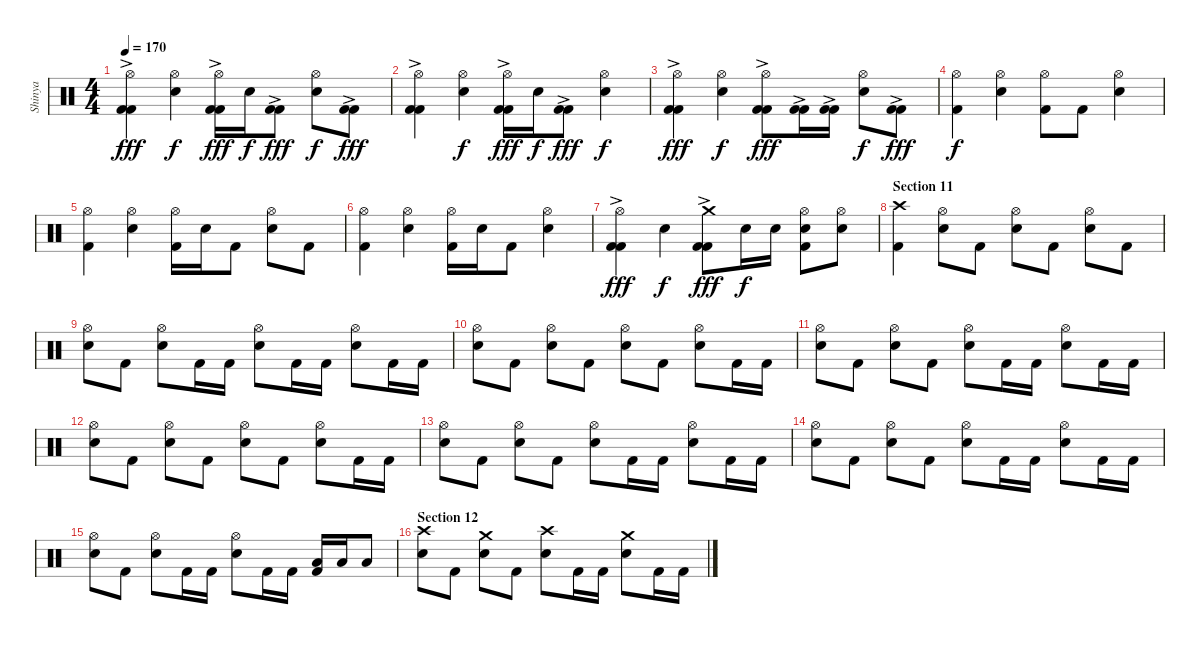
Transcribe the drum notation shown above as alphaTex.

\track ("Shinya" "Shinya") {instrument percussion}
\staff {score}
\articulation defaults
\ts (4 4)
\tempo 170
\clef neutral
\ks c
("Hi-Hat (open)" "Kick (hit) 2"{ac} "Kick (hit) 2").4{dy fff} ("Hi-Hat (open)" "Snare (hit) 2").4{dy f} ("Hi-Hat (open)" "Kick (hit) 2"{ac} "Kick (hit) 2").16{dy fff} "Snare (hit) 2".16{dy f} ("Kick (hit) 2"{ac} "Kick (hit) 2").8{dy fff} ("Hi-Hat (open)" "Snare (hit) 2").8{dy f} ("Kick (hit) 2"{ac} "Kick (hit) 2").8{dy fff} |
("Hi-Hat (open)" "Kick (hit) 2"{ac} "Kick (hit) 2").4 ("Hi-Hat (open)" "Snare (hit) 2").4{dy f} ("Hi-Hat (open)" "Kick (hit) 2"{ac} "Kick (hit) 2").16{dy fff} "Snare (hit) 2".16{dy f} ("Kick (hit) 2"{ac} "Kick (hit) 2").8{dy fff} ("Hi-Hat (open)" "Snare (hit) 2").4{dy f} |
("Hi-Hat (open)" "Kick (hit) 2"{ac} "Kick (hit) 2").4{dy fff} ("Hi-Hat (open)" "Snare (hit) 2").4{dy f} ("Hi-Hat (open)" "Kick (hit) 2"{ac} "Kick (hit) 2").8{dy fff} ("Kick (hit) 2"{ac} "Kick (hit) 2").16 ("Kick (hit) 2"{ac} "Kick (hit) 2").16 ("Hi-Hat (open)" "Snare (hit) 2").8{dy f} ("Kick (hit) 2"{ac} "Kick (hit) 2").8{dy fff} |
("Hi-Hat (open)" "Kick (hit) 2").4{dy f} ("Hi-Hat (open)" "Snare (hit) 2").4 ("Hi-Hat (open)" "Kick (hit) 2").8 "Kick (hit) 2".8 ("Hi-Hat (open)" "Snare (hit) 2").4 |
("Hi-Hat (open)" "Kick (hit) 2").4 ("Hi-Hat (open)" "Snare (hit) 2").4 ("Hi-Hat (open)" "Kick (hit) 2").16 "Snare (hit) 2".16 "Kick (hit) 2".8 ("Hi-Hat (open)" "Snare (hit) 2").8 "Kick (hit) 2".8 |
("Hi-Hat (open)" "Kick (hit) 2").4 ("Hi-Hat (open)" "Snare (hit) 2").4 ("Hi-Hat (open)" "Kick (hit) 2").16 "Snare (hit) 2".16 "Kick (hit) 2".8 ("Hi-Hat (open)" "Snare (hit) 2").4 |
("Hi-Hat (open)" "Kick (hit) 2"{ac} "Kick (hit) 2").4{dy fff} "Snare (hit) 2".4{dy f} ("Crash medium (hit)" "Kick (hit) 2"{ac} "Kick (hit) 2").8{dy fff} "Snare (hit) 2".16{dy f} "Snare (hit) 2".16 ("Hi-Hat (open)" "Snare (hit) 2" "Kick (hit) 2").8 ("Hi-Hat (open)" "Snare (hit) 2").8 |
\section ("" "Section 11")
("Crash high (hit)" "Kick (hit) 2").4 ("Hi-Hat (open)" "Snare (hit) 2").8 "Kick (hit) 2".8 ("Hi-Hat (open)" "Snare (hit) 2").8 "Kick (hit) 2".8 ("Hi-Hat (open)" "Snare (hit) 2").8 "Kick (hit) 2".8 |
("Hi-Hat (open)" "Snare (hit) 2").8 "Kick (hit) 2".8 ("Hi-Hat (open)" "Snare (hit) 2").8 "Kick (hit) 2".16 "Kick (hit) 2".16 ("Hi-Hat (open)" "Snare (hit) 2").8 "Kick (hit) 2".16 "Kick (hit) 2".16 ("Hi-Hat (open)" "Snare (hit) 2").8 "Kick (hit) 2".16 "Kick (hit) 2".16 |
("Hi-Hat (open)" "Snare (hit) 2").8 "Kick (hit) 2".8 ("Hi-Hat (open)" "Snare (hit) 2").8 "Kick (hit) 2".8 ("Hi-Hat (open)" "Snare (hit) 2").8 "Kick (hit) 2".8 ("Hi-Hat (open)" "Snare (hit) 2").8 "Kick (hit) 2".16 "Kick (hit) 2".16 |
("Hi-Hat (open)" "Snare (hit) 2").8 "Kick (hit) 2".8 ("Hi-Hat (open)" "Snare (hit) 2").8 "Kick (hit) 2".8 ("Hi-Hat (open)" "Snare (hit) 2").8 "Kick (hit) 2".16 "Kick (hit) 2".16 ("Hi-Hat (open)" "Snare (hit) 2").8 "Kick (hit) 2".16 "Kick (hit) 2".16 |
("Hi-Hat (open)" "Snare (hit) 2").8 "Kick (hit) 2".8 ("Hi-Hat (open)" "Snare (hit) 2").8 "Kick (hit) 2".8 ("Hi-Hat (open)" "Snare (hit) 2").8 "Kick (hit) 2".8 ("Hi-Hat (open)" "Snare (hit) 2").8 "Kick (hit) 2".16 "Kick (hit) 2".16 |
("Hi-Hat (open)" "Snare (hit) 2").8 "Kick (hit) 2".8 ("Hi-Hat (open)" "Snare (hit) 2").8 "Kick (hit) 2".8 ("Hi-Hat (open)" "Snare (hit) 2").8 "Kick (hit) 2".16 "Kick (hit) 2".16 ("Hi-Hat (open)" "Snare (hit) 2").8 "Kick (hit) 2".16 "Kick (hit) 2".16 |
("Hi-Hat (open)" "Snare (hit) 2").8 "Kick (hit) 2".8 ("Hi-Hat (open)" "Snare (hit) 2").8 "Kick (hit) 2".8 ("Hi-Hat (open)" "Snare (hit) 2").8 "Kick (hit) 2".16 "Kick (hit) 2".16 ("Hi-Hat (open)" "Snare (hit) 2").8 "Kick (hit) 2".16 "Kick (hit) 2".16 |
("Hi-Hat (open)" "Snare (hit) 2").8 "Kick (hit) 2".8 ("Hi-Hat (open)" "Snare (hit) 2").8 "Kick (hit) 2".16 "Kick (hit) 2".16 ("Hi-Hat (open)" "Snare (hit) 2").8 "Kick (hit) 2".16 "Kick (hit) 2".16 ("Low Tom (hit)" "Kick (hit) 2").16 "Low Tom (hit)".16 "Low Floor Tom (hit)".8 |
\section ("" "Section 12")
("Crash high (hit)" "Snare (hit) 2").8 "Kick (hit) 2".8 ("Crash medium (hit)" "Snare (hit) 2").8 "Kick (hit) 2".8 ("Crash high (hit)" "Snare (hit) 2").8 "Kick (hit) 2".16 "Kick (hit) 2".16 ("Crash medium (hit)" "Snare (hit) 2").8 "Kick (hit) 2".16 "Kick (hit) 2".16
